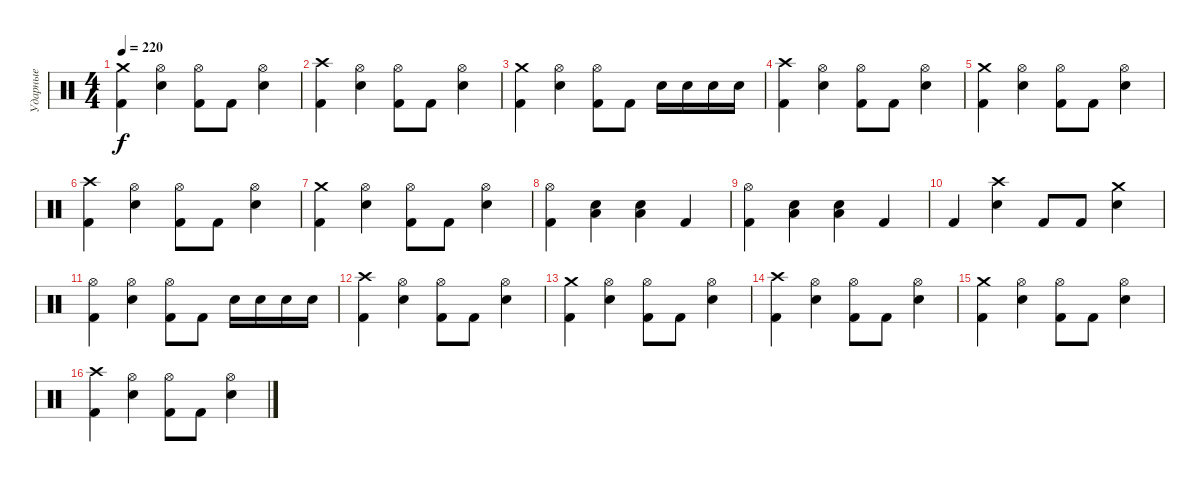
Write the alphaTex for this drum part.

\track ("Ударные" "Ударные") {instrument percussion}
\staff {score}
\articulation defaults
\ts (4 4)
\tempo 220
\clef neutral
\ks c
("Crash medium (hit)" "Kick (hit) 2").4{dy f} ("Hi-Hat (open)" "Electric Snare (hit)").4 ("Hi-Hat (open)" "Kick (hit) 2").8 "Kick (hit) 2".8 ("Hi-Hat (open)" "Electric Snare (hit)").4 |
("Crash high (hit)" "Kick (hit) 2").4 ("Hi-Hat (open)" "Electric Snare (hit)").4 ("Hi-Hat (open)" "Kick (hit) 2").8 "Kick (hit) 2".8 ("Hi-Hat (open)" "Electric Snare (hit)").4 |
("Crash medium (hit)" "Kick (hit) 2").4 ("Hi-Hat (open)" "Electric Snare (hit)").4 ("Hi-Hat (open)" "Kick (hit) 2").8 "Kick (hit) 2".8 "Electric Snare (hit)".16 "Electric Snare (hit)".16 "Electric Snare (hit)".16 "Electric Snare (hit)".16 |
("Crash high (hit)" "Kick (hit) 2").4 ("Hi-Hat (open)" "Electric Snare (hit)").4 ("Hi-Hat (open)" "Kick (hit) 2").8 "Kick (hit) 2".8 ("Hi-Hat (open)" "Electric Snare (hit)").4 |
("Crash medium (hit)" "Kick (hit) 2").4 ("Hi-Hat (open)" "Electric Snare (hit)").4 ("Hi-Hat (open)" "Kick (hit) 2").8 "Kick (hit) 2".8 ("Hi-Hat (open)" "Electric Snare (hit)").4 |
("Crash high (hit)" "Kick (hit) 2").4 ("Hi-Hat (open)" "Electric Snare (hit)").4 ("Hi-Hat (open)" "Kick (hit) 2").8 "Kick (hit) 2".8 ("Hi-Hat (open)" "Electric Snare (hit)").4 |
("Crash medium (hit)" "Kick (hit) 2").4 ("Hi-Hat (open)" "Electric Snare (hit)").4 ("Hi-Hat (open)" "Kick (hit) 2").8 "Kick (hit) 2".8 ("Hi-Hat (open)" "Electric Snare (hit)").4 |
("Hi-Hat (open)" "Kick (hit) 2").4 ("Low Tom (hit)" "Electric Snare (hit)").4 ("Low Tom (hit)" "Electric Snare (hit)").4 "Kick (hit) 2".4 |
("Hi-Hat (open)" "Kick (hit) 2").4 ("Low Tom (hit)" "Electric Snare (hit)").4 ("Low Tom (hit)" "Electric Snare (hit)").4 "Kick (hit) 2".4 |
"Kick (hit) 2".4 ("Crash high (hit)" "Electric Snare (hit)").4 "Kick (hit) 2".8 "Kick (hit) 2".8 ("Crash medium (hit)" "Electric Snare (hit)").4 |
("Hi-Hat (open)" "Kick (hit) 2").4 ("Hi-Hat (open)" "Electric Snare (hit)").4 ("Hi-Hat (open)" "Kick (hit) 2").8 "Kick (hit) 2".8 "Electric Snare (hit)".16 "Electric Snare (hit)".16 "Electric Snare (hit)".16 "Electric Snare (hit)".16 |
("Crash high (hit)" "Kick (hit) 2").4 ("Hi-Hat (open)" "Electric Snare (hit)").4 ("Hi-Hat (open)" "Kick (hit) 2").8 "Kick (hit) 2".8 ("Hi-Hat (open)" "Electric Snare (hit)").4 |
("Crash medium (hit)" "Kick (hit) 2").4 ("Hi-Hat (open)" "Electric Snare (hit)").4 ("Hi-Hat (open)" "Kick (hit) 2").8 "Kick (hit) 2".8 ("Hi-Hat (open)" "Electric Snare (hit)").4 |
("Crash high (hit)" "Kick (hit) 2").4 ("Hi-Hat (open)" "Electric Snare (hit)").4 ("Hi-Hat (open)" "Kick (hit) 2").8 "Kick (hit) 2".8 ("Hi-Hat (open)" "Electric Snare (hit)").4 |
("Crash medium (hit)" "Kick (hit) 2").4 ("Hi-Hat (open)" "Electric Snare (hit)").4 ("Hi-Hat (open)" "Kick (hit) 2").8 "Kick (hit) 2".8 ("Hi-Hat (open)" "Electric Snare (hit)").4 |
("Crash high (hit)" "Kick (hit) 2").4 ("Hi-Hat (open)" "Electric Snare (hit)").4 ("Hi-Hat (open)" "Kick (hit) 2").8 "Kick (hit) 2".8 ("Hi-Hat (open)" "Electric Snare (hit)").4
